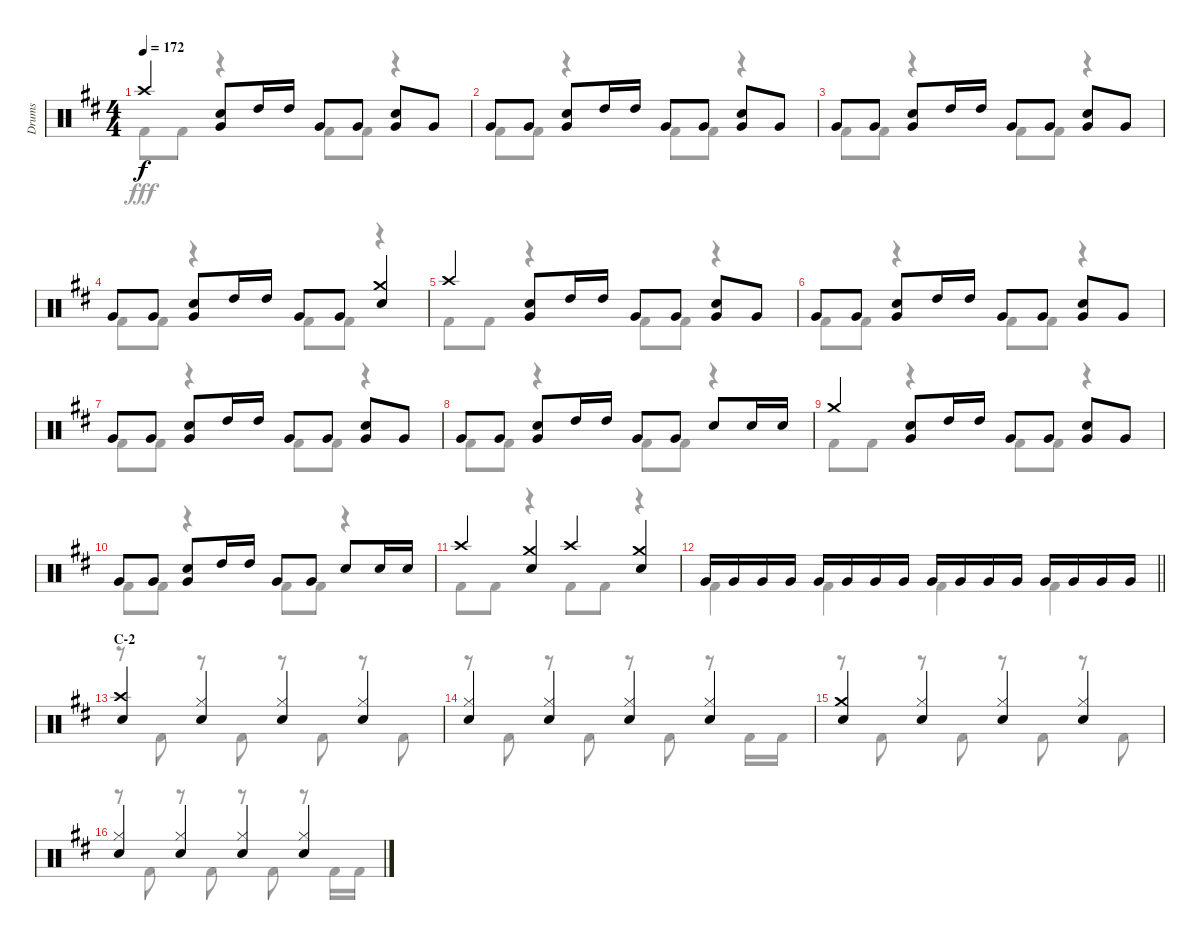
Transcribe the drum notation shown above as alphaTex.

\track ("Drums" "Drums") {instrument percussion}
\staff {score}
\articulation defaults
\voice
\ts (4 4)
\tempo 172
\clef neutral
\ks d "Crash high (hit)".4{dy f}
("Snare (hit) 2" "Very Low Tom (hit)").8 "High Tom (hit)".16 "High Tom (hit)".16 "Very Low Tom (hit)".8 "Very Low Tom (hit)".8 ("Snare (hit) 2" "Very Low Tom (hit)").8 "Very Low Tom (hit)".8 |
"Very Low Tom (hit)".8 "Very Low Tom (hit)".8 ("Snare (hit) 2" "Very Low Tom (hit)").8 "High Tom (hit)".16 "High Tom (hit)".16 "Very Low Tom (hit)".8 "Very Low Tom (hit)".8 ("Snare (hit) 2" "Very Low Tom (hit)").8 "Very Low Tom (hit)".8 |
"Very Low Tom (hit)".8 "Very Low Tom (hit)".8 ("Snare (hit) 2" "Very Low Tom (hit)").8 "High Tom (hit)".16 "High Tom (hit)".16 "Very Low Tom (hit)".8 "Very Low Tom (hit)".8 ("Snare (hit) 2" "Very Low Tom (hit)").8 "Very Low Tom (hit)".8 |
"Very Low Tom (hit)".8 "Very Low Tom (hit)".8 ("Snare (hit) 2" "Very Low Tom (hit)").8 "High Tom (hit)".16 "High Tom (hit)".16 "Very Low Tom (hit)".8 "Very Low Tom (hit)".8 ("Crash medium (hit)" "Snare (hit) 2").4 |
"Crash high (hit)".4 ("Snare (hit) 2" "Very Low Tom (hit)").8 "High Tom (hit)".16 "High Tom (hit)".16 "Very Low Tom (hit)".8 "Very Low Tom (hit)".8 ("Snare (hit) 2" "Very Low Tom (hit)").8 "Very Low Tom (hit)".8 |
"Very Low Tom (hit)".8 "Very Low Tom (hit)".8 ("Snare (hit) 2" "Very Low Tom (hit)").8 "High Tom (hit)".16 "High Tom (hit)".16 "Very Low Tom (hit)".8 "Very Low Tom (hit)".8 ("Snare (hit) 2" "Very Low Tom (hit)").8 "Very Low Tom (hit)".8 |
"Very Low Tom (hit)".8 "Very Low Tom (hit)".8 ("Snare (hit) 2" "Very Low Tom (hit)").8 "High Tom (hit)".16 "High Tom (hit)".16 "Very Low Tom (hit)".8 "Very Low Tom (hit)".8 ("Snare (hit) 2" "Very Low Tom (hit)").8 "Very Low Tom (hit)".8 |
"Very Low Tom (hit)".8 "Very Low Tom (hit)".8 ("Snare (hit) 2" "Very Low Tom (hit)").8 "High Tom (hit)".16 "High Tom (hit)".16 "Very Low Tom (hit)".8 "Very Low Tom (hit)".8 "Snare (hit) 2".8 "Snare (hit) 2".16 "Snare (hit) 2".16 |
"Crash medium (hit)".4 ("Snare (hit) 2" "Very Low Tom (hit)").8 "High Tom (hit)".16 "High Tom (hit)".16 "Very Low Tom (hit)".8 "Very Low Tom (hit)".8 ("Snare (hit) 2" "Very Low Tom (hit)").8 "Very Low Tom (hit)".8 |
"Very Low Tom (hit)".8 "Very Low Tom (hit)".8 ("Snare (hit) 2" "Very Low Tom (hit)").8 "High Tom (hit)".16 "High Tom (hit)".16 "Very Low Tom (hit)".8 "Very Low Tom (hit)".8 "Snare (hit) 2".8 "Snare (hit) 2".16 "Snare (hit) 2".16 |
"Crash high (hit)".4 ("Crash medium (hit)" "Snare (hit) 2").4 "Crash high (hit)".4 ("Crash medium (hit)" "Snare (hit) 2").4 |
\barLineRight lightlight "Very Low Tom (hit)".16 "Very Low Tom (hit)".16 "Very Low Tom (hit)".16 "Very Low Tom (hit)".16 "Very Low Tom (hit)".16 "Very Low Tom (hit)".16 "Very Low Tom (hit)".16 "Very Low Tom (hit)".16 "Very Low Tom (hit)".16 "Very Low Tom (hit)".16 "Very Low Tom (hit)".16 "Very Low Tom (hit)".16 "Very Low Tom (hit)".16 "Very Low Tom (hit)".16 "Very Low Tom (hit)".16 "Very Low Tom (hit)".16
|
\section ("" "C-2")
("Crash high (hit)" "Snare (hit) 2").4 ("Hi-Hat (closed)" "Snare (hit) 2").4 ("Hi-Hat (closed)" "Snare (hit) 2").4 ("Hi-Hat (closed)" "Snare (hit) 2").4 |
("Hi-Hat (closed)" "Snare (hit) 2").4 ("Hi-Hat (closed)" "Snare (hit) 2").4 ("Hi-Hat (closed)" "Snare (hit) 2").4 ("Hi-Hat (closed)" "Snare (hit) 2").4 |
("Crash medium (hit)" "Snare (hit) 2").4 ("Hi-Hat (closed)" "Snare (hit) 2").4 ("Hi-Hat (closed)" "Snare (hit) 2").4 ("Hi-Hat (closed)" "Snare (hit) 2").4 |
("Hi-Hat (closed)" "Snare (hit) 2").4 ("Hi-Hat (closed)" "Snare (hit) 2").4 ("Hi-Hat (closed)" "Snare (hit) 2").4 ("Hi-Hat (closed)" "Snare (hit) 2").4
\voice
\clef neutral
\ottava regular
\simile none
\ks d "Kick (hit) 2".8{dy fff} "Kick (hit) 2".8
r.4 "Kick (hit) 2".8 "Kick (hit) 2".8 r.4 |
"Kick (hit) 2".8 "Kick (hit) 2".8 r.4 "Kick (hit) 2".8 "Kick (hit) 2".8 r.4 |
"Kick (hit) 2".8 "Kick (hit) 2".8 r.4 "Kick (hit) 2".8 "Kick (hit) 2".8 r.4 |
"Kick (hit) 2".8 "Kick (hit) 2".8 r.4 "Kick (hit) 2".8 "Kick (hit) 2".8 r.4 |
"Kick (hit) 2".8 "Kick (hit) 2".8 r.4 "Kick (hit) 2".8 "Kick (hit) 2".8 r.4 |
"Kick (hit) 2".8 "Kick (hit) 2".8 r.4 "Kick (hit) 2".8 "Kick (hit) 2".8 r.4 |
"Kick (hit) 2".8 "Kick (hit) 2".8 r.4 "Kick (hit) 2".8 "Kick (hit) 2".8 r.4 |
"Kick (hit) 2".8 "Kick (hit) 2".8 r.4 "Kick (hit) 2".8 "Kick (hit) 2".8 r.4 |
"Kick (hit) 2".8 "Kick (hit) 2".8 r.4 "Kick (hit) 2".8 "Kick (hit) 2".8 r.4 |
"Kick (hit) 2".8 "Kick (hit) 2".8 r.4 "Kick (hit) 2".8 "Kick (hit) 2".8 r.4 |
"Kick (hit) 2".8 "Kick (hit) 2".8 r.4 "Kick (hit) 2".8 "Kick (hit) 2".8 r.4 |
\barLineRight lightlight "Kick (hit) 2".4 "Kick (hit) 2".4 "Kick (hit) 2".4 "Kick (hit) 2".4
|
r.8 "Kick (hit) 2".8 r.8 "Kick (hit) 2".8 r.8 "Kick (hit) 2".8 r.8 "Kick (hit) 2".8 |
r.8 "Kick (hit) 2".8 r.8 "Kick (hit) 2".8 r.8 "Kick (hit) 2".8 r.8 "Kick (hit) 2".16 "Kick (hit) 2".16 |
r.8 "Kick (hit) 2".8 r.8 "Kick (hit) 2".8 r.8 "Kick (hit) 2".8 r.8 "Kick (hit) 2".8 |
r.8 "Kick (hit) 2".8 r.8 "Kick (hit) 2".8 r.8 "Kick (hit) 2".8 r.8 "Kick (hit) 2".16 "Kick (hit) 2".16
